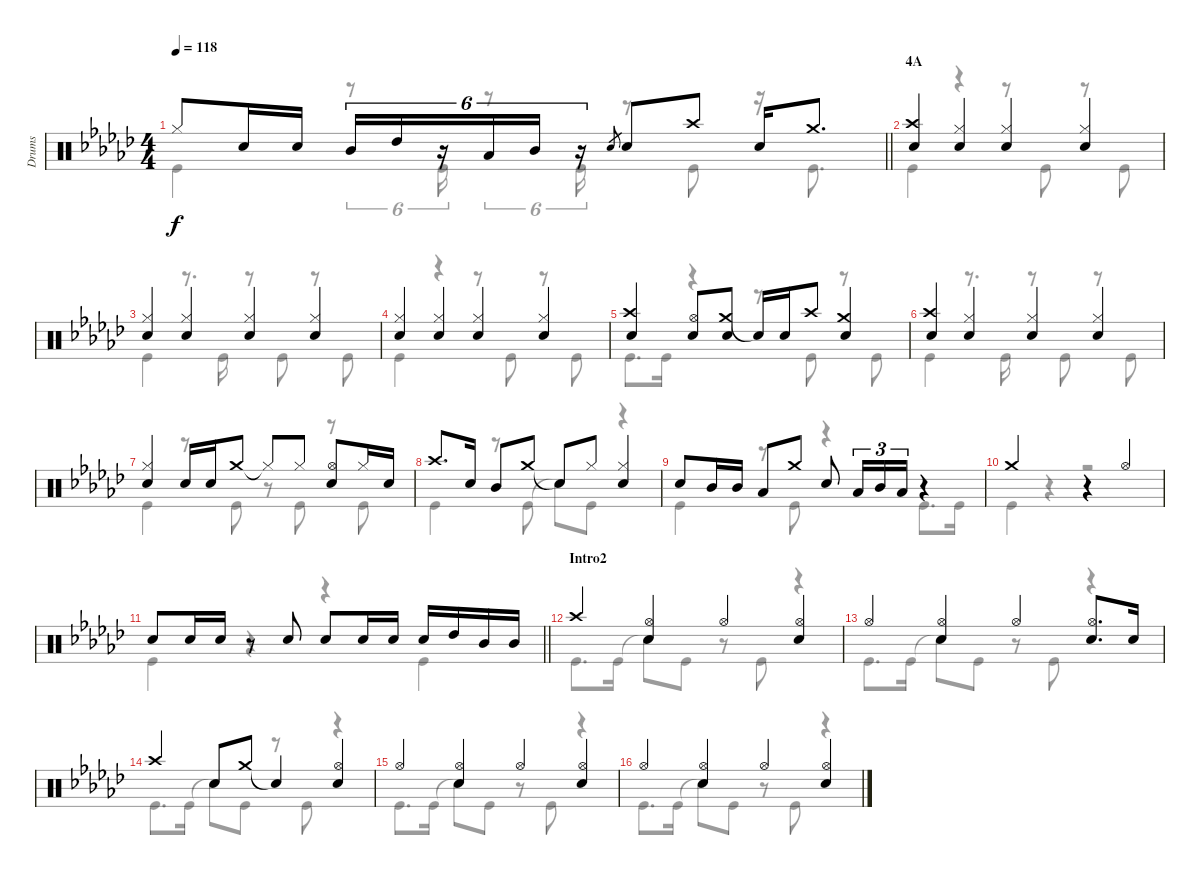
\track ("Drums" "Drums") {instrument percussion}
\staff {score}
\articulation defaults
\voice
\ts (4 4)
\tempo 118
\clef neutral
\barLineRight lightlight
\ks gb "Hi-Hat (closed)".8{dy f} "Snare (hit) 2".16 "Snare (hit) 2".16 "Mid Tom (hit)".16{tu (6 4)} "High Tom (hit)".16{tu (6 4)}
r.16{tu (6 4)} "Low Tom (hit)".16{tu (6 4)} "Mid Tom (hit)".16{tu (6 4)} r.16{tu (6 4)} "Snare (hit) 2".8{gr} "Snare (hit) 2".8 "Crash high (hit)".8 "Snare (hit) 2".16 "Crash medium (hit)".8{d} |
\section ("" "4A")
("Crash high (hit)" "Snare (hit) 2").4 ("Hi-Hat (closed)" "Snare (hit) 2").4 ("Hi-Hat (closed)" "Snare (hit) 2").4 ("Hi-Hat (closed)" "Snare (hit) 2").4 |
("Hi-Hat (closed)" "Snare (hit) 2").4 ("Hi-Hat (closed)" "Snare (hit) 2").4 ("Hi-Hat (closed)" "Snare (hit) 2").4 ("Hi-Hat (closed)" "Snare (hit) 2").4 |
("Hi-Hat (closed)" "Snare (hit) 2").4 ("Hi-Hat (closed)" "Snare (hit) 2").4 ("Hi-Hat (closed)" "Snare (hit) 2").4 ("Hi-Hat (closed)" "Snare (hit) 2").4 |
("Crash high (hit)" "Snare (hit) 2").4 ("Hi-Hat (open)" "Snare (hit) 2").8 ("Crash medium (hit)" "Snare (hit) 2").8 "Snare (hit)"{t}.16 "Snare (hit) 2".16 "Crash high (hit)".8 ("Crash medium (hit)" "Snare (hit) 2").4 |
("Crash high (hit)" "Snare (hit) 2").4 ("Hi-Hat (closed)" "Snare (hit) 2").4 ("Hi-Hat (closed)" "Snare (hit) 2").4 ("Hi-Hat (closed)" "Snare (hit) 2").4 |
("Hi-Hat (closed)" "Snare (hit) 2").4 "Snare (hit) 2".16 "Snare (hit) 2".16 "Crash medium (hit)".8 "Hi-Hat (closed)"{t}.8 "Hi-Hat (closed)".8 ("Hi-Hat (open)" "Snare (hit) 2").8 "Hi-Hat (closed)".16 "Snare (hit) 2".16 |
"Crash high (hit)".8{d} "Snare (hit) 2".16 "Mid Tom (hit)".8 "Crash medium (hit)".8 "Snare (hit)"{t}.8 "Hi-Hat (closed)".8 ("Hi-Hat (closed)" "Snare (hit) 2").4 |
"Snare (hit) 2".8 "Mid Tom (hit)".16 "Mid Tom (hit)".16 "Low Tom (hit)".8 "Crash medium (hit)".8 "Snare (hit) 2".8 "Low Tom (hit)".16{tu (3 2)} "Mid Tom (hit)".16{tu (3 2)} "Low Tom (hit)".16{tu (3 2)} r.4 |
"Crash medium (hit)".2 r.4 "Hi-Hat (open)".4 |
\barLineRight lightlight "Snare (hit) 2".8 "Snare (hit) 2".16 "Snare (hit) 2".16
r.8 "Snare (hit) 2".8 "Snare (hit) 2".8 "Snare (hit) 2".16 "Snare (hit) 2".16 "Snare (hit) 2".16 "High Tom (hit)".16 "Mid Tom (hit)".16 "Mid Tom (hit)".16 |
\section ("" "Intro2")
"Crash high (hit)".4 ("Hi-Hat (open)" "Snare (hit) 2").4 "Hi-Hat (open)".4 ("Hi-Hat (open)" "Snare (hit) 2").4 |
"Hi-Hat (open)".4 ("Hi-Hat (open)" "Snare (hit) 2").4 "Hi-Hat (open)".4 ("Hi-Hat (open)" "Snare (hit) 2").8{d} "Snare (hit) 2".16 |
"Crash high (hit)".4 "Snare (hit) 2".8 "Crash medium (hit)".8 "Snare (hit)"{t}.4 ("Hi-Hat (open)" "Snare (hit) 2").4 |
"Hi-Hat (open)".4 ("Hi-Hat (open)" "Snare (hit) 2").4 "Hi-Hat (open)".4 ("Hi-Hat (open)" "Snare (hit) 2").4 |
"Hi-Hat (open)".4 ("Hi-Hat (open)" "Snare (hit) 2").4 "Hi-Hat (open)".4 ("Hi-Hat (open)" "Snare (hit) 2").4
\voice
\clef neutral
\ottava regular
\simile none
\barLineRight lightlight
\ks gb "Kick (hit)".4{dy f}
r.8{tu (6 4)} "Kick (hit)".16{tu (6 4)} r.8{tu (6 4)} "Kick (hit)".16{tu (6 4)} r.8 "Kick (hit)".8 r.16 "Kick (hit)".8{d} |
"Kick (hit)".4 r.4 r.8 "Kick (hit)".8 r.8 "Kick (hit)".8 |
"Kick (hit)".4 r.8{d} "Kick (hit)".16 r.8 "Kick (hit)".8 r.8 "Kick (hit)".8 |
"Kick (hit)".4 r.4 r.8 "Kick (hit)".8 r.8 "Kick (hit)".8 |
"Kick (hit)".8{d} "Kick (hit)".16 r.4 r.8 "Kick (hit)".8 r.8 "Kick (hit)".8 |
"Kick (hit)".4 r.8{d} "Kick (hit)".16 r.8 "Kick (hit)".8 r.8 "Kick (hit)".8 |
"Kick (hit)".4 r.8 "Kick (hit)".8 r.8 "Kick (hit)".8 r.8 "Kick (hit)".8 |
"Kick (hit)".4 r.8 "Kick (hit)".8 "Snare (hit)"{t}.8 "Kick (hit)".8 r.4 |
"Kick (hit)".4 r.8 "Kick (hit)".8 r.4 "Kick (hit)".8{d} "Kick (hit)".16 |
"Kick (hit)".4 r.4 r.2 |
\barLineRight lightlight "Kick (hit)".4
r.4 r.4 "Kick (hit)".4 |
"Kick (hit)".8{d} "Kick (hit)".16 "Snare (hit)"{t}.8 "Kick (hit)".8 r.8 "Kick (hit)".8 r.4 |
"Kick (hit)".8{d} "Kick (hit)".16 "Snare (hit)"{t}.8 "Kick (hit)".8 r.8 "Kick (hit)".8 r.4 |
"Kick (hit)".8{d} "Kick (hit)".16 "Snare (hit)"{t}.8 "Kick (hit)".8 r.8 "Kick (hit)".8 r.4 |
"Kick (hit)".8{d} "Kick (hit)".16 "Snare (hit)"{t}.8 "Kick (hit)".8 r.8 "Kick (hit)".8 r.4 |
"Kick (hit)".8{d} "Kick (hit)".16 "Snare (hit)"{t}.8 "Kick (hit)".8 r.8 "Kick (hit)".8 r.4
